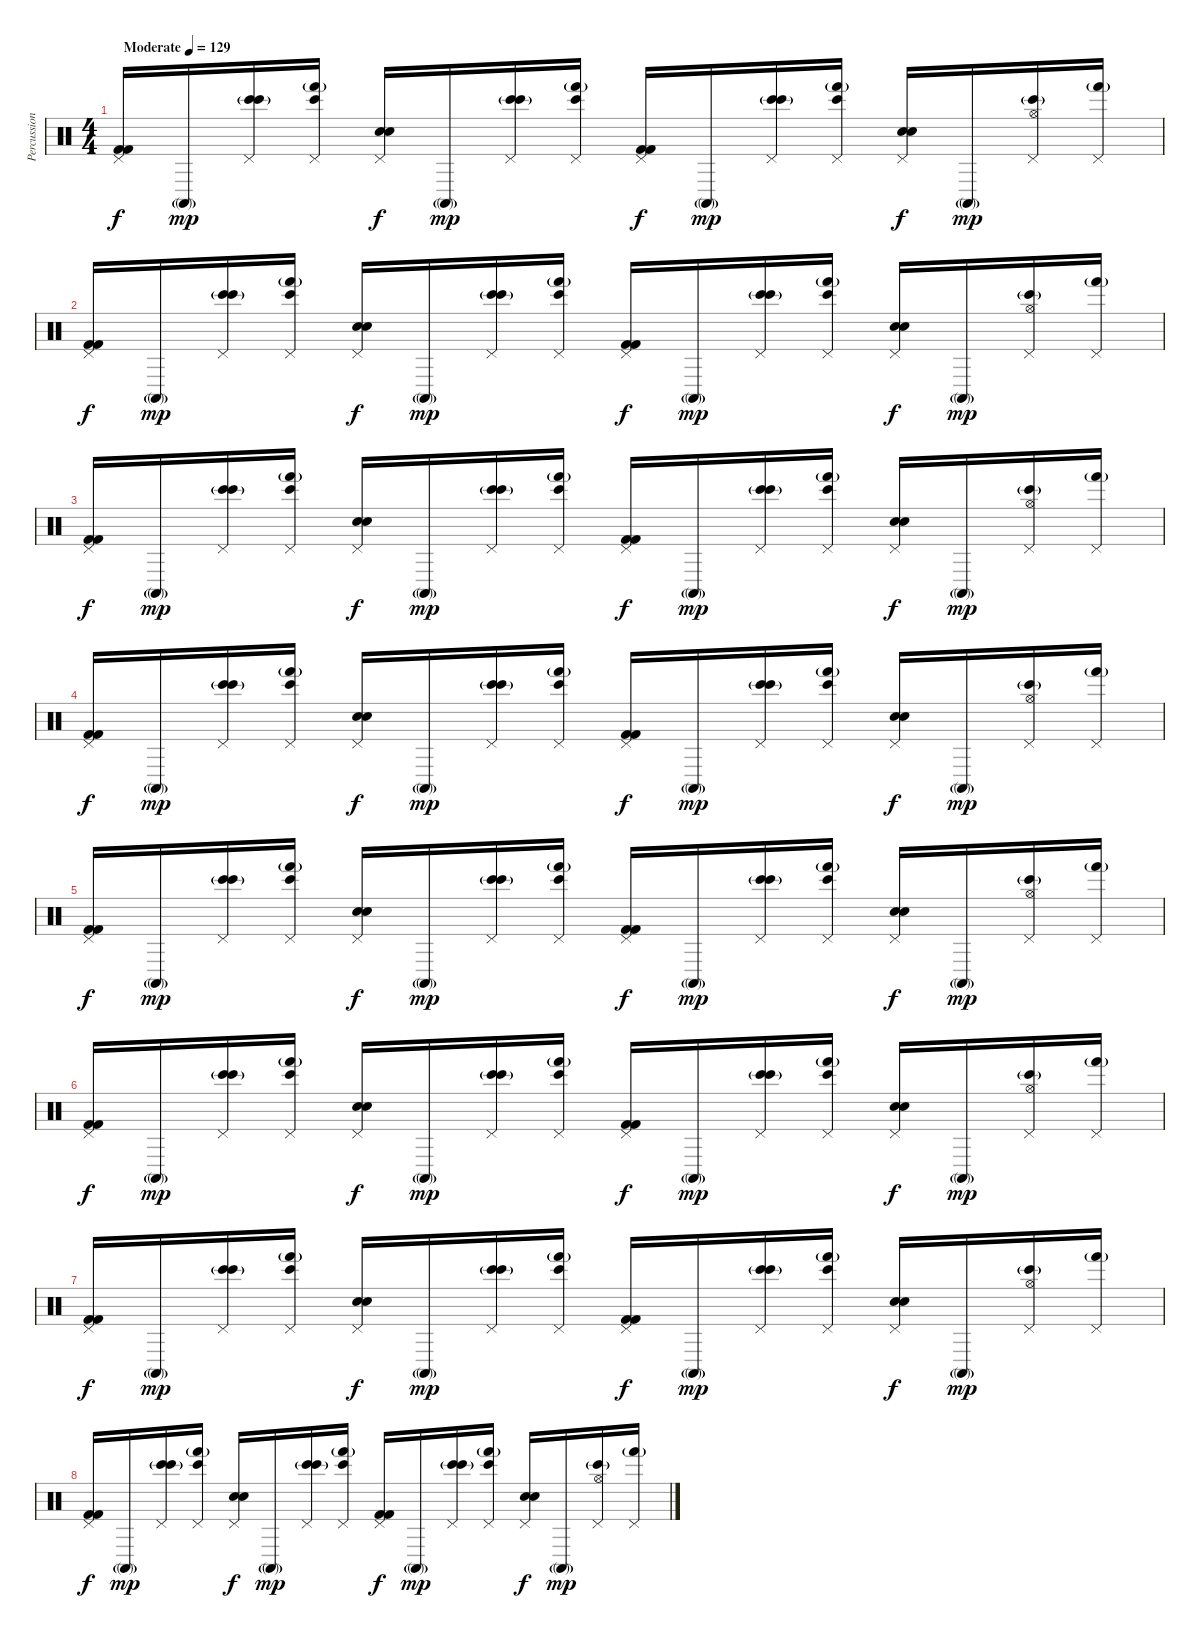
\track ("Percussion" "Percussion") {instrument percussion}
\staff {score}
\articulation defaults
\ts (4 4)
\tempo (129 "Moderate")
\clef neutral
\ks c
("Pedal Hi-Hat (hit)" "Kick (hit) 2" "Kick (hit) 2").16{dy f} "Conga high (mute)"{g}.16{dy mp} ("Pedal Hi-Hat (hit)" "Bongo High (hit)" "Bongo High (hit)"{g}).16 ("Pedal Hi-Hat (hit)" "Bongo High (hit)" "Hand (hit)"{g}).16 ("Pedal Hi-Hat (hit)" "Electric Snare (hit)" "Snare (hit) 2").16{dy f} "Conga high (mute)"{g}.16{dy mp} ("Pedal Hi-Hat (hit)" "Bongo High (hit)" "Bongo High (hit)"{g}).16 ("Pedal Hi-Hat (hit)" "Bongo High (hit)" "Hand (hit)"{g}).16 ("Pedal Hi-Hat (hit)" "Kick (hit) 2" "Kick (hit) 2").16{dy f} "Conga high (mute)"{g}.16{dy mp} ("Pedal Hi-Hat (hit)" "Bongo High (hit)" "Bongo High (hit)"{g}).16 ("Pedal Hi-Hat (hit)" "Bongo High (hit)" "Hand (hit)"{g}).16 ("Pedal Hi-Hat (hit)" "Electric Snare (hit)" "Snare (hit) 2").16{dy f} "Conga high (mute)"{g}.16{dy mp} ("Pedal Hi-Hat (hit)" "Hi-Hat (open)" "Bongo High (hit)"{g}).16 ("Pedal Hi-Hat (hit)" "Hand (hit)"{g}).16 |
("Pedal Hi-Hat (hit)" "Kick (hit) 2" "Kick (hit) 2").16{dy f} "Conga high (mute)"{g}.16{dy mp} ("Pedal Hi-Hat (hit)" "Bongo High (hit)" "Bongo High (hit)"{g}).16 ("Pedal Hi-Hat (hit)" "Bongo High (hit)" "Hand (hit)"{g}).16 ("Pedal Hi-Hat (hit)" "Electric Snare (hit)" "Snare (hit) 2").16{dy f} "Conga high (mute)"{g}.16{dy mp} ("Pedal Hi-Hat (hit)" "Bongo High (hit)" "Bongo High (hit)"{g}).16 ("Pedal Hi-Hat (hit)" "Bongo High (hit)" "Hand (hit)"{g}).16 ("Pedal Hi-Hat (hit)" "Kick (hit) 2" "Kick (hit) 2").16{dy f} "Conga high (mute)"{g}.16{dy mp} ("Pedal Hi-Hat (hit)" "Bongo High (hit)" "Bongo High (hit)"{g}).16 ("Pedal Hi-Hat (hit)" "Bongo High (hit)" "Hand (hit)"{g}).16 ("Pedal Hi-Hat (hit)" "Electric Snare (hit)" "Snare (hit) 2").16{dy f} "Conga high (mute)"{g}.16{dy mp} ("Pedal Hi-Hat (hit)" "Hi-Hat (open)" "Bongo High (hit)"{g}).16 ("Pedal Hi-Hat (hit)" "Hand (hit)"{g}).16 |
("Pedal Hi-Hat (hit)" "Kick (hit) 2" "Kick (hit) 2").16{dy f} "Conga high (mute)"{g}.16{dy mp} ("Pedal Hi-Hat (hit)" "Bongo High (hit)" "Bongo High (hit)"{g}).16 ("Pedal Hi-Hat (hit)" "Bongo High (hit)" "Hand (hit)"{g}).16 ("Pedal Hi-Hat (hit)" "Electric Snare (hit)" "Snare (hit) 2").16{dy f} "Conga high (mute)"{g}.16{dy mp} ("Pedal Hi-Hat (hit)" "Bongo High (hit)" "Bongo High (hit)"{g}).16 ("Pedal Hi-Hat (hit)" "Bongo High (hit)" "Hand (hit)"{g}).16 ("Pedal Hi-Hat (hit)" "Kick (hit) 2" "Kick (hit) 2").16{dy f} "Conga high (mute)"{g}.16{dy mp} ("Pedal Hi-Hat (hit)" "Bongo High (hit)" "Bongo High (hit)"{g}).16 ("Pedal Hi-Hat (hit)" "Bongo High (hit)" "Hand (hit)"{g}).16 ("Pedal Hi-Hat (hit)" "Electric Snare (hit)" "Snare (hit) 2").16{dy f} "Conga high (mute)"{g}.16{dy mp} ("Pedal Hi-Hat (hit)" "Hi-Hat (open)" "Bongo High (hit)"{g}).16 ("Pedal Hi-Hat (hit)" "Hand (hit)"{g}).16 |
("Pedal Hi-Hat (hit)" "Kick (hit) 2" "Kick (hit) 2").16{dy f} "Conga high (mute)"{g}.16{dy mp} ("Pedal Hi-Hat (hit)" "Bongo High (hit)" "Bongo High (hit)"{g}).16 ("Pedal Hi-Hat (hit)" "Bongo High (hit)" "Hand (hit)"{g}).16 ("Pedal Hi-Hat (hit)" "Electric Snare (hit)" "Snare (hit) 2").16{dy f} "Conga high (mute)"{g}.16{dy mp} ("Pedal Hi-Hat (hit)" "Bongo High (hit)" "Bongo High (hit)"{g}).16 ("Pedal Hi-Hat (hit)" "Bongo High (hit)" "Hand (hit)"{g}).16 ("Pedal Hi-Hat (hit)" "Kick (hit) 2" "Kick (hit) 2").16{dy f} "Conga high (mute)"{g}.16{dy mp} ("Pedal Hi-Hat (hit)" "Bongo High (hit)" "Bongo High (hit)"{g}).16 ("Pedal Hi-Hat (hit)" "Bongo High (hit)" "Hand (hit)"{g}).16 ("Pedal Hi-Hat (hit)" "Electric Snare (hit)" "Snare (hit) 2").16{dy f} "Conga high (mute)"{g}.16{dy mp} ("Pedal Hi-Hat (hit)" "Hi-Hat (open)" "Bongo High (hit)"{g}).16 ("Pedal Hi-Hat (hit)" "Hand (hit)"{g}).16 |
("Pedal Hi-Hat (hit)" "Kick (hit) 2" "Kick (hit) 2").16{dy f} "Conga high (mute)"{g}.16{dy mp} ("Pedal Hi-Hat (hit)" "Bongo High (hit)" "Bongo High (hit)"{g}).16 ("Pedal Hi-Hat (hit)" "Bongo High (hit)" "Hand (hit)"{g}).16 ("Pedal Hi-Hat (hit)" "Electric Snare (hit)" "Snare (hit) 2").16{dy f} "Conga high (mute)"{g}.16{dy mp} ("Pedal Hi-Hat (hit)" "Bongo High (hit)" "Bongo High (hit)"{g}).16 ("Pedal Hi-Hat (hit)" "Bongo High (hit)" "Hand (hit)"{g}).16 ("Pedal Hi-Hat (hit)" "Kick (hit) 2" "Kick (hit) 2").16{dy f} "Conga high (mute)"{g}.16{dy mp} ("Pedal Hi-Hat (hit)" "Bongo High (hit)" "Bongo High (hit)"{g}).16 ("Pedal Hi-Hat (hit)" "Bongo High (hit)" "Hand (hit)"{g}).16 ("Pedal Hi-Hat (hit)" "Electric Snare (hit)" "Snare (hit) 2").16{dy f} "Conga high (mute)"{g}.16{dy mp} ("Pedal Hi-Hat (hit)" "Hi-Hat (open)" "Bongo High (hit)"{g}).16 ("Pedal Hi-Hat (hit)" "Hand (hit)"{g}).16 |
("Pedal Hi-Hat (hit)" "Kick (hit) 2" "Kick (hit) 2").16{dy f} "Conga high (mute)"{g}.16{dy mp} ("Pedal Hi-Hat (hit)" "Bongo High (hit)" "Bongo High (hit)"{g}).16 ("Pedal Hi-Hat (hit)" "Bongo High (hit)" "Hand (hit)"{g}).16 ("Pedal Hi-Hat (hit)" "Electric Snare (hit)" "Snare (hit) 2").16{dy f} "Conga high (mute)"{g}.16{dy mp} ("Pedal Hi-Hat (hit)" "Bongo High (hit)" "Bongo High (hit)"{g}).16 ("Pedal Hi-Hat (hit)" "Bongo High (hit)" "Hand (hit)"{g}).16 ("Pedal Hi-Hat (hit)" "Kick (hit) 2" "Kick (hit) 2").16{dy f} "Conga high (mute)"{g}.16{dy mp} ("Pedal Hi-Hat (hit)" "Bongo High (hit)" "Bongo High (hit)"{g}).16 ("Pedal Hi-Hat (hit)" "Bongo High (hit)" "Hand (hit)"{g}).16 ("Pedal Hi-Hat (hit)" "Electric Snare (hit)" "Snare (hit) 2").16{dy f} "Conga high (mute)"{g}.16{dy mp} ("Pedal Hi-Hat (hit)" "Hi-Hat (open)" "Bongo High (hit)"{g}).16 ("Pedal Hi-Hat (hit)" "Hand (hit)"{g}).16 |
("Pedal Hi-Hat (hit)" "Kick (hit) 2" "Kick (hit) 2").16{dy f} "Conga high (mute)"{g}.16{dy mp} ("Pedal Hi-Hat (hit)" "Bongo High (hit)" "Bongo High (hit)"{g}).16 ("Pedal Hi-Hat (hit)" "Bongo High (hit)" "Hand (hit)"{g}).16 ("Pedal Hi-Hat (hit)" "Electric Snare (hit)" "Snare (hit) 2").16{dy f} "Conga high (mute)"{g}.16{dy mp} ("Pedal Hi-Hat (hit)" "Bongo High (hit)" "Bongo High (hit)"{g}).16 ("Pedal Hi-Hat (hit)" "Bongo High (hit)" "Hand (hit)"{g}).16 ("Pedal Hi-Hat (hit)" "Kick (hit) 2" "Kick (hit) 2").16{dy f} "Conga high (mute)"{g}.16{dy mp} ("Pedal Hi-Hat (hit)" "Bongo High (hit)" "Bongo High (hit)"{g}).16 ("Pedal Hi-Hat (hit)" "Bongo High (hit)" "Hand (hit)"{g}).16 ("Pedal Hi-Hat (hit)" "Electric Snare (hit)" "Snare (hit) 2").16{dy f} "Conga high (mute)"{g}.16{dy mp} ("Pedal Hi-Hat (hit)" "Hi-Hat (open)" "Bongo High (hit)"{g}).16 ("Pedal Hi-Hat (hit)" "Hand (hit)"{g}).16 |
("Pedal Hi-Hat (hit)" "Kick (hit) 2" "Kick (hit) 2").16{dy f} "Conga high (mute)"{g}.16{dy mp} ("Pedal Hi-Hat (hit)" "Bongo High (hit)" "Bongo High (hit)"{g}).16 ("Pedal Hi-Hat (hit)" "Bongo High (hit)" "Hand (hit)"{g}).16 ("Pedal Hi-Hat (hit)" "Electric Snare (hit)" "Snare (hit) 2").16{dy f} "Conga high (mute)"{g}.16{dy mp} ("Pedal Hi-Hat (hit)" "Bongo High (hit)" "Bongo High (hit)"{g}).16 ("Pedal Hi-Hat (hit)" "Bongo High (hit)" "Hand (hit)"{g}).16 ("Pedal Hi-Hat (hit)" "Kick (hit) 2" "Kick (hit) 2").16{dy f} "Conga high (mute)"{g}.16{dy mp} ("Pedal Hi-Hat (hit)" "Bongo High (hit)" "Bongo High (hit)"{g}).16 ("Pedal Hi-Hat (hit)" "Bongo High (hit)" "Hand (hit)"{g}).16 ("Pedal Hi-Hat (hit)" "Electric Snare (hit)" "Snare (hit) 2").16{dy f} "Conga high (mute)"{g}.16{dy mp} ("Pedal Hi-Hat (hit)" "Hi-Hat (open)" "Bongo High (hit)"{g}).16 ("Pedal Hi-Hat (hit)" "Hand (hit)"{g}).16
